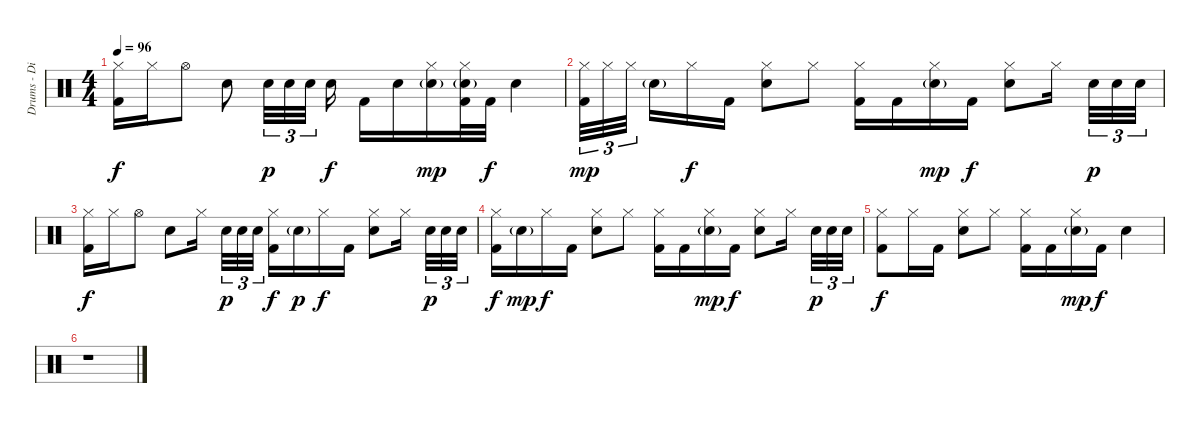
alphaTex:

\track ("Drums - Dino Campanella" "Drums - Di") {instrument percussion}
\staff {score}
\articulation defaults
\ts (4 4)
\tempo 96
\clef neutral
\ks c
("Hi-Hat (closed)" "Kick (hit) 2").16{dy f} "Hi-Hat (closed)".16 "Hi-Hat (open)".8 "Electric Snare (hit)".8 "Electric Snare (hit)".32{tu (3 2) dy p} "Electric Snare (hit)".32{tu (3 2)} "Electric Snare (hit)".32{tu (3 2)} "Electric Snare (hit)".16{dy f} "Kick (hit) 2".16 "Electric Snare (hit)".16 ("Hi-Hat (closed)" "Electric Snare (hit)"{g}).16{dy mp} ("Hi-Hat (closed)" "Electric Snare (hit)"{g} "Kick (hit) 2").32 "Kick (hit) 2".32{dy f} "Electric Snare (hit)".4 |
("Hi-Hat (closed)" "Kick (hit) 2").32{tu (3 2) dy mp} "Hi-Hat (closed)".32{tu (3 2)} "Hi-Hat (closed)".32{tu (3 2)} "Electric Snare (hit)"{g}.16 "Hi-Hat (closed)".16{dy f} "Kick (hit) 2".16 ("Hi-Hat (closed)" "Electric Snare (hit)").8 "Hi-Hat (closed)".8 ("Hi-Hat (closed)" "Kick (hit) 2").16 "Kick (hit) 2".16 ("Hi-Hat (closed)" "Electric Snare (hit)"{g}).16{dy mp} "Kick (hit) 2".16{dy f} ("Hi-Hat (closed)" "Electric Snare (hit)").8 "Hi-Hat (closed)".16 "Electric Snare (hit)".32{tu (3 2) dy p} "Electric Snare (hit)".32{tu (3 2)} "Electric Snare (hit)".32{tu (3 2)} |
("Hi-Hat (closed)" "Kick (hit) 2").16{dy f} "Hi-Hat (closed)".16 "Hi-Hat (open)".8 "Electric Snare (hit)".8 "Hi-Hat (closed)".16 "Electric Snare (hit)".32{tu (3 2) dy p} "Electric Snare (hit)".32{tu (3 2)} "Electric Snare (hit)".32{tu (3 2)} ("Hi-Hat (closed)" "Kick (hit) 2").16{dy f} "Electric Snare (hit)"{g}.16{dy p} "Hi-Hat (closed)".16{dy f} "Kick (hit) 2".16 ("Hi-Hat (closed)" "Electric Snare (hit)").8 "Hi-Hat (closed)".16 "Electric Snare (hit)".32{tu (3 2) dy p} "Electric Snare (hit)".32{tu (3 2)} "Electric Snare (hit)".32{tu (3 2)} |
("Hi-Hat (closed)" "Kick (hit) 2").16{dy f} "Electric Snare (hit)"{g}.16{dy mp} "Hi-Hat (closed)".16{dy f} "Kick (hit) 2".16 ("Hi-Hat (closed)" "Electric Snare (hit)").8 "Hi-Hat (closed)".8 ("Hi-Hat (closed)" "Kick (hit) 2").16 "Kick (hit) 2".16 ("Hi-Hat (closed)" "Electric Snare (hit)"{g}).16{dy mp} "Kick (hit) 2".16{dy f} ("Hi-Hat (closed)" "Electric Snare (hit)").8 "Hi-Hat (closed)".16 "Electric Snare (hit)".32{tu (3 2) dy p} "Electric Snare (hit)".32{tu (3 2)} "Electric Snare (hit)".32{tu (3 2)} |
("Hi-Hat (closed)" "Kick (hit) 2").8{dy f} "Hi-Hat (closed)".16 "Kick (hit) 2".16 ("Hi-Hat (closed)" "Electric Snare (hit)").8 "Hi-Hat (closed)".8 ("Hi-Hat (closed)" "Kick (hit) 2").16 "Kick (hit) 2".16 ("Hi-Hat (closed)" "Electric Snare (hit)"{g}).16{dy mp} "Kick (hit) 2".16{dy f} "Electric Snare (hit)".4 |
r.1
